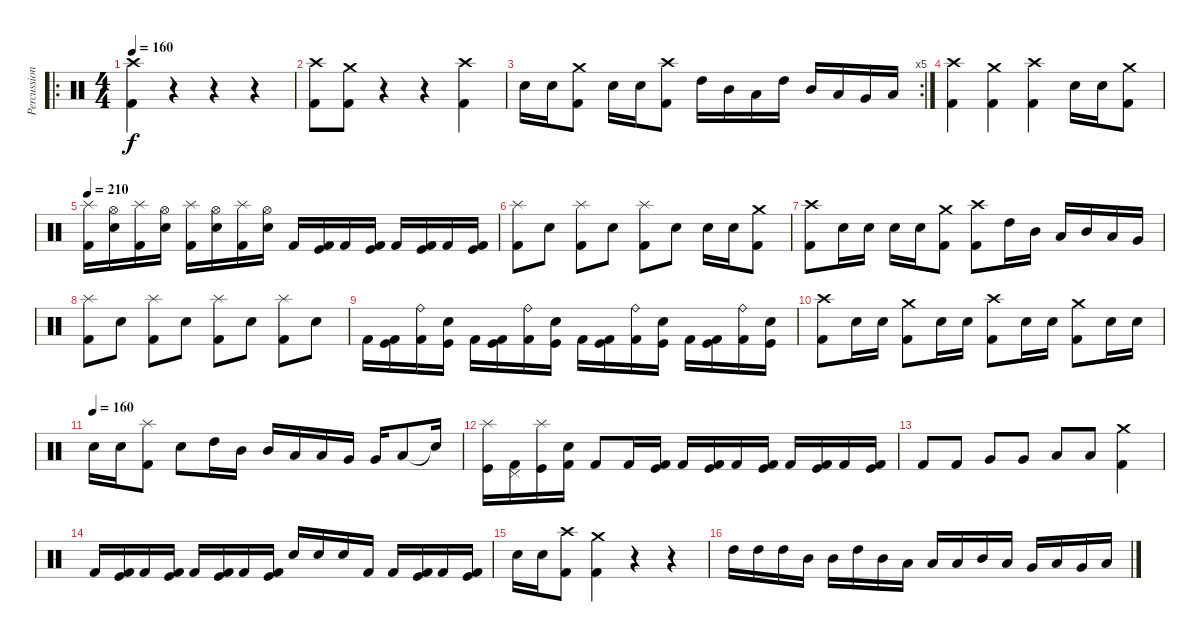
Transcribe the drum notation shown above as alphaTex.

\track ("Percussion" "Percussion") {instrument percussion}
\staff {score}
\articulation defaults
\ro
\ts (4 4)
\tempo 160
\clef neutral
\ks c
("Crash high (hit)" "Kick (hit) 2").4{dy f} r.4 r.4 r.4 |
("Crash high (hit)" "Kick (hit) 2").8 ("Crash medium (hit)" "Kick (hit) 2").8 r.4 r.4 ("Crash high (hit)" "Kick (hit) 2").4 |
\rc 5 "Electric Snare (hit)".16 "Electric Snare (hit)".16
("Crash medium (hit)" "Kick (hit) 2").8 "Electric Snare (hit)".16 "Electric Snare (hit)".16 ("Crash high (hit)" "Kick (hit) 2").8 "High Tom (hit)".16 "Mid Tom (hit)".16 "Low Tom (hit)".16 "High Tom (hit)".16 "Mid Tom (hit)".16 "Low Tom (hit)".16 "Very Low Tom (hit)".16 "Low Floor Tom (hit)".16 |
("Crash high (hit)" "Kick (hit) 2").4 ("Crash medium (hit)" "Kick (hit) 2").4 ("Crash high (hit)" "Kick (hit) 2").4 "Electric Snare (hit)".16 "Electric Snare (hit)".16 ("Crash medium (hit)" "Kick (hit) 2").8 |
\tempo 210
("Splash (hit)" "Kick (hit) 2").16{volume 10} ("Hi-Hat (open)" "Electric Snare (hit)").16 ("Splash (hit)" "Kick (hit) 2").16 ("Hi-Hat (open)" "Electric Snare (hit)").16 ("Splash (hit)" "Kick (hit) 2").16 ("Hi-Hat (open)" "Electric Snare (hit)").16 ("Splash (hit)" "Kick (hit) 2").16 ("Hi-Hat (open)" "Electric Snare (hit)").16 "Kick (hit) 2".16 ("Kick (hit)" "Kick (hit) 2").16 "Kick (hit) 2".16 ("Kick (hit)" "Kick (hit) 2").16 "Kick (hit) 2".16 ("Kick (hit)" "Kick (hit) 2").16 "Kick (hit) 2".16 ("Kick (hit)" "Kick (hit) 2").16 |
("Splash (hit)" "Kick (hit) 2").8 "Electric Snare (hit)".8 ("Splash (hit)" "Kick (hit) 2").8 "Electric Snare (hit)".8 ("Splash (hit)" "Kick (hit) 2").8 "Electric Snare (hit)".8 "Electric Snare (hit)".16 "Electric Snare (hit)".16 ("Crash medium (hit)" "Kick (hit) 2").8 |
("Crash high (hit)" "Kick (hit) 2").8 "Electric Snare (hit)".16 "Electric Snare (hit)".16 "Electric Snare (hit)".16 "Electric Snare (hit)".16 ("Crash medium (hit)" "Kick (hit) 2").8 ("Crash high (hit)" "Kick (hit) 2").8 "High Tom (hit)".16 "Mid Tom (hit)".16 "Low Tom (hit)".16 "Mid Tom (hit)".16 "Low Tom (hit)".16 "Very Low Tom (hit)".16 |
("Splash (hit)" "Kick (hit) 2").8 "Electric Snare (hit)".8 ("Splash (hit)" "Kick (hit) 2").8 "Electric Snare (hit)".8 ("Splash (hit)" "Kick (hit) 2").8 "Electric Snare (hit)".8 ("Splash (hit)" "Kick (hit) 2").8 "Electric Snare (hit)".8 |
"Kick (hit) 2".16 ("Kick (hit)" "Kick (hit) 2").16 ("Ride (bell)" "Kick (hit) 2").16 ("Electric Snare (hit)" "Kick (hit)").16 "Kick (hit) 2".16 ("Kick (hit)" "Kick (hit) 2").16 ("Ride (bell)" "Kick (hit) 2").16 ("Electric Snare (hit)" "Kick (hit)").16 "Kick (hit) 2".16 ("Kick (hit)" "Kick (hit) 2").16 ("Ride (bell)" "Kick (hit) 2").16 ("Electric Snare (hit)" "Kick (hit)").16 "Kick (hit) 2".16 ("Kick (hit)" "Kick (hit) 2").16 ("Ride (bell)" "Kick (hit) 2").16 ("Electric Snare (hit)" "Kick (hit)").16 |
("Crash high (hit)" "Kick (hit) 2").8 "Electric Snare (hit)".16 "Electric Snare (hit)".16 ("Crash medium (hit)" "Kick (hit) 2").8 "Electric Snare (hit)".16 "Electric Snare (hit)".16 ("Crash high (hit)" "Kick (hit) 2").8 "Electric Snare (hit)".16 "Electric Snare (hit)".16 ("Crash medium (hit)" "Kick (hit) 2").8 "Electric Snare (hit)".16 "Electric Snare (hit)".16 |
\tempo (160)
"Snare (hit) 2".16 "Snare (hit) 2".16 ("Splash (hit)" "Kick (hit) 2").8 "Electric Snare (hit)".8 "High Tom (hit)".16 "Mid Tom (hit)".16 "Mid Tom (hit)".16 "Low Tom (hit)".16 "Low Tom (hit)".16 "Very Low Tom (hit)".16 "Very Low Tom (hit)".16 "Low Floor Tom (hit)".8 "Snare (hit)"{t}.16 |
("Splash (hit)" "Kick (hit)").16 ("Pedal Hi-Hat (hit)" "Kick (hit) 2").16 ("Splash (hit)" "Kick (hit)").16 ("Electric Snare (hit)" "Kick (hit) 2").16 "Kick (hit) 2".8 "Kick (hit) 2".16 ("Kick (hit)" "Kick (hit) 2").16 "Kick (hit) 2".16 ("Kick (hit)" "Kick (hit) 2").16 "Kick (hit) 2".16 ("Kick (hit)" "Kick (hit) 2").16 "Kick (hit) 2".16 ("Kick (hit)" "Kick (hit) 2").16 "Kick (hit) 2".16 ("Kick (hit)" "Kick (hit) 2").16 |
"Kick (hit) 2".8 "Kick (hit) 2".8 "Very Low Tom (hit)".8 "Very Low Tom (hit)".8 "Low Floor Tom (hit)".8 "Low Floor Tom (hit)".8 ("Crash medium (hit)" "Kick (hit) 2").4 |
"Kick (hit) 2".16 ("Kick (hit)" "Kick (hit) 2").16 "Kick (hit) 2".16 ("Kick (hit)" "Kick (hit) 2").16 "Kick (hit) 2".16 ("Kick (hit)" "Kick (hit) 2").16 "Kick (hit) 2".16 ("Kick (hit)" "Kick (hit) 2").16 "Electric Snare (hit)".16 "Electric Snare (hit)".16 "Electric Snare (hit)".16 "Kick (hit) 2".16 "Kick (hit) 2".16 ("Kick (hit)" "Kick (hit) 2").16 "Kick (hit) 2".16 ("Kick (hit)" "Kick (hit) 2").16 |
"Electric Snare (hit)".16 "Electric Snare (hit)".16 ("Crash high (hit)" "Kick (hit) 2").8 ("Crash medium (hit)" "Kick (hit) 2").4 r.4 r.4 |
"High Tom (hit)".16 "High Tom (hit)".16 "High Tom (hit)".16 "Mid Tom (hit)".16 "Mid Tom (hit)".16 "High Tom (hit)".16 "Mid Tom (hit)".16 "Low Tom (hit)".16 "Low Tom (hit)".16 "Low Tom (hit)".16 "Mid Tom (hit)".16 "Low Tom (hit)".16 "Very Low Tom (hit)".16 "Low Floor Tom (hit)".16 "Very Low Tom (hit)".16 "Low Floor Tom (hit)".16
